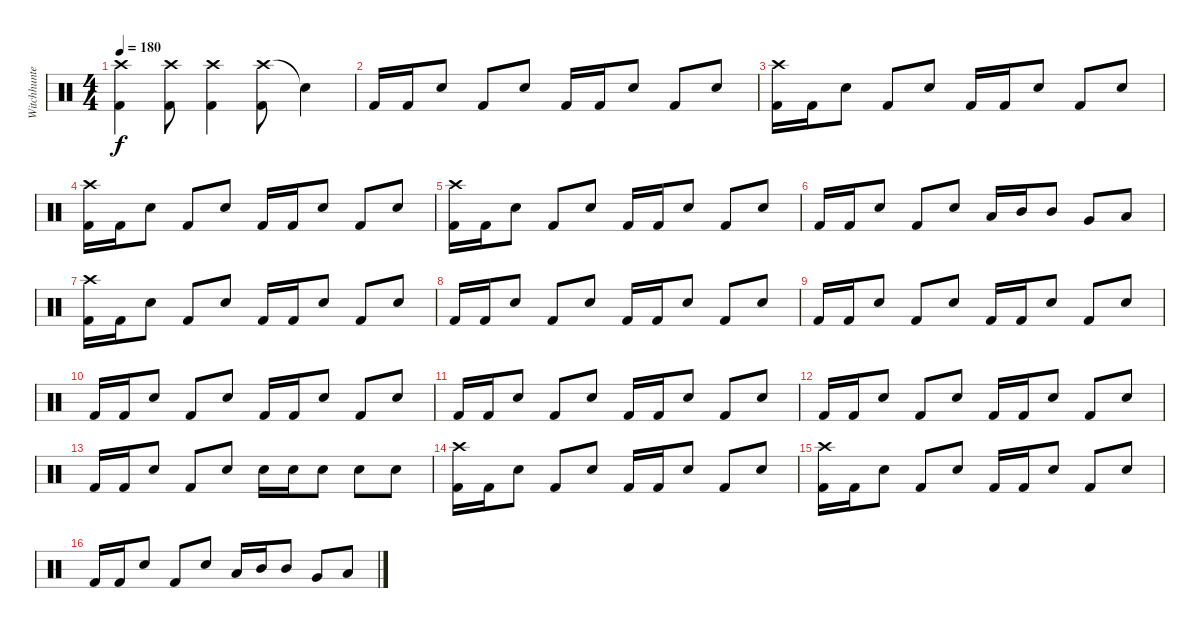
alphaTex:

\track ("Witchhunter (Drums)" "Witchhunte") {instrument percussion}
\staff {score}
\articulation defaults
\ts (4 4)
\tempo 180
\clef neutral
\ks c
("Crash high (hit)" "Kick (hit) 2").4{dy f} ("Crash high (hit)" "Kick (hit) 2").8 ("Crash high (hit)" "Kick (hit) 2").4 ("Crash high (hit)" "Kick (hit) 2").8 "Snare (hit)"{t}.4 |
"Kick (hit) 2".16 "Kick (hit) 2".16 "Snare (hit) 2".8 "Kick (hit) 2".8 "Snare (hit) 2".8 "Kick (hit) 2".16 "Kick (hit) 2".16 "Snare (hit) 2".8 "Kick (hit) 2".8 "Snare (hit) 2".8 |
("Crash high (hit)" "Kick (hit) 2").16 "Kick (hit) 2".16 "Snare (hit) 2".8 "Kick (hit) 2".8 "Snare (hit) 2".8 "Kick (hit) 2".16 "Kick (hit) 2".16 "Snare (hit) 2".8 "Kick (hit) 2".8 "Snare (hit) 2".8 |
("Crash high (hit)" "Kick (hit) 2").16 "Kick (hit) 2".16 "Snare (hit) 2".8 "Kick (hit) 2".8 "Snare (hit) 2".8 "Kick (hit) 2".16 "Kick (hit) 2".16 "Snare (hit) 2".8 "Kick (hit) 2".8 "Snare (hit) 2".8 |
("Crash high (hit)" "Kick (hit) 2").16 "Kick (hit) 2".16 "Snare (hit) 2".8 "Kick (hit) 2".8 "Snare (hit) 2".8 "Kick (hit) 2".16 "Kick (hit) 2".16 "Snare (hit) 2".8 "Kick (hit) 2".8 "Snare (hit) 2".8 |
"Kick (hit) 2".16 "Kick (hit) 2".16 "Snare (hit) 2".8 "Kick (hit) 2".8 "Snare (hit) 2".8 "Low Tom (hit)".16 "Mid Tom (hit)".16 "Mid Tom (hit)".8 "Very Low Tom (hit)".8 "Low Tom (hit)".8 |
("Crash high (hit)" "Kick (hit) 2").16 "Kick (hit) 2".16 "Snare (hit) 2".8 "Kick (hit) 2".8 "Snare (hit) 2".8 "Kick (hit) 2".16 "Kick (hit) 2".16 "Snare (hit) 2".8 "Kick (hit) 2".8 "Snare (hit) 2".8 |
"Kick (hit) 2".16 "Kick (hit) 2".16 "Snare (hit) 2".8 "Kick (hit) 2".8 "Snare (hit) 2".8 "Kick (hit) 2".16 "Kick (hit) 2".16 "Snare (hit) 2".8 "Kick (hit) 2".8 "Snare (hit) 2".8 |
"Kick (hit) 2".16 "Kick (hit) 2".16 "Snare (hit) 2".8 "Kick (hit) 2".8 "Snare (hit) 2".8 "Kick (hit) 2".16 "Kick (hit) 2".16 "Snare (hit) 2".8 "Kick (hit) 2".8 "Snare (hit) 2".8 |
"Kick (hit) 2".16 "Kick (hit) 2".16 "Snare (hit) 2".8 "Kick (hit) 2".8 "Snare (hit) 2".8 "Kick (hit) 2".16 "Kick (hit) 2".16 "Snare (hit) 2".8 "Kick (hit) 2".8 "Snare (hit) 2".8 |
"Kick (hit) 2".16 "Kick (hit) 2".16 "Snare (hit) 2".8 "Kick (hit) 2".8 "Snare (hit) 2".8 "Kick (hit) 2".16 "Kick (hit) 2".16 "Snare (hit) 2".8 "Kick (hit) 2".8 "Snare (hit) 2".8 |
"Kick (hit) 2".16 "Kick (hit) 2".16 "Snare (hit) 2".8 "Kick (hit) 2".8 "Snare (hit) 2".8 "Kick (hit) 2".16 "Kick (hit) 2".16 "Snare (hit) 2".8 "Kick (hit) 2".8 "Snare (hit) 2".8 |
"Kick (hit) 2".16 "Kick (hit) 2".16 "Snare (hit) 2".8 "Kick (hit) 2".8 "Snare (hit) 2".8 "Snare (hit) 2".16 "Snare (hit) 2".16 "Snare (hit) 2".8 "Snare (hit) 2".8 "Snare (hit) 2".8 |
("Crash high (hit)" "Kick (hit) 2").16 "Kick (hit) 2".16 "Snare (hit) 2".8 "Kick (hit) 2".8 "Snare (hit) 2".8 "Kick (hit) 2".16 "Kick (hit) 2".16 "Snare (hit) 2".8 "Kick (hit) 2".8 "Snare (hit) 2".8 |
("Crash high (hit)" "Kick (hit) 2").16 "Kick (hit) 2".16 "Snare (hit) 2".8 "Kick (hit) 2".8 "Snare (hit) 2".8 "Kick (hit) 2".16 "Kick (hit) 2".16 "Snare (hit) 2".8 "Kick (hit) 2".8 "Snare (hit) 2".8 |
"Kick (hit) 2".16 "Kick (hit) 2".16 "Snare (hit) 2".8 "Kick (hit) 2".8 "Snare (hit) 2".8 "Low Tom (hit)".16 "Mid Tom (hit)".16 "Mid Tom (hit)".8 "Very Low Tom (hit)".8 "Low Tom (hit)".8
